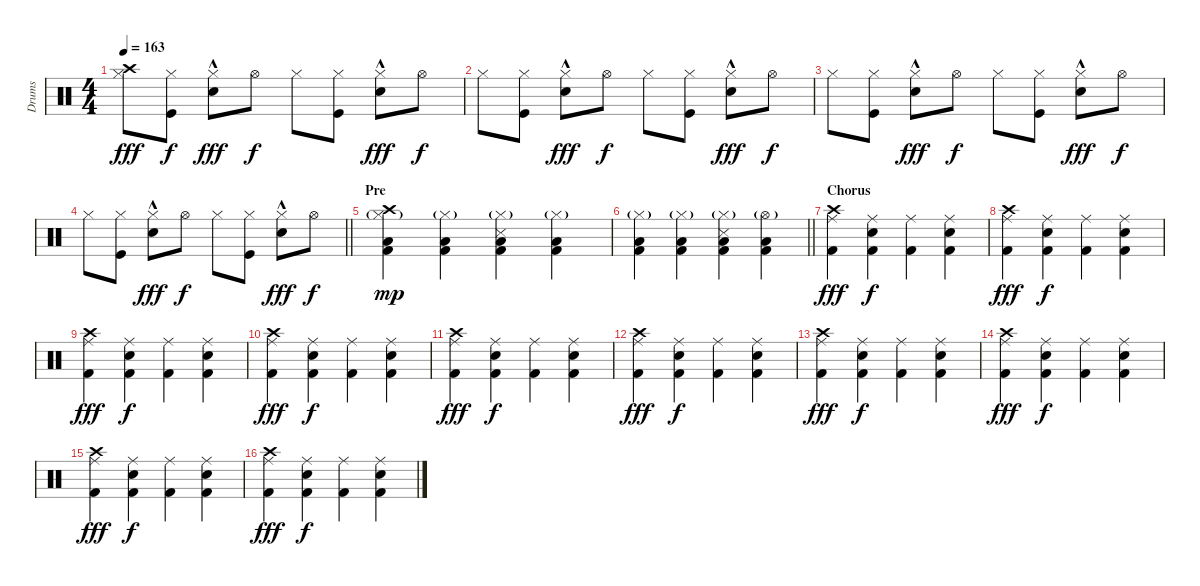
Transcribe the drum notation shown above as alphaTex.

\track ("Drums" "Drums") {instrument percussion}
\staff {score}
\articulation defaults
\ts (4 4)
\tempo 163
\clef neutral
\ks c
("Crash high (hit)" "Hi-Hat (closed)").8{dy fff} ("Kick (hit)" "Hi-Hat (closed)").8{dy f} ("Snare (hit) 2"{hac} "Hi-Hat (closed)").8{dy fff} "Hi-Hat (open)".8{dy f} "Hi-Hat (closed)".8 ("Kick (hit)" "Hi-Hat (closed)").8 ("Snare (hit) 2"{hac} "Hi-Hat (closed)").8{dy fff} "Hi-Hat (open)".8{dy f} |
"Hi-Hat (closed)".8 ("Kick (hit)" "Hi-Hat (closed)").8 ("Snare (hit) 2"{hac} "Hi-Hat (closed)").8{dy fff} "Hi-Hat (open)".8{dy f} "Hi-Hat (closed)".8 ("Kick (hit)" "Hi-Hat (closed)").8 ("Snare (hit) 2"{hac} "Hi-Hat (closed)").8{dy fff} "Hi-Hat (open)".8{dy f} |
"Hi-Hat (closed)".8 ("Kick (hit)" "Hi-Hat (closed)").8 ("Snare (hit) 2"{hac} "Hi-Hat (closed)").8{dy fff} "Hi-Hat (open)".8{dy f} "Hi-Hat (closed)".8 ("Kick (hit)" "Hi-Hat (closed)").8 ("Snare (hit) 2"{hac} "Hi-Hat (closed)").8{dy fff} "Hi-Hat (open)".8{dy f} |
\barLineRight lightlight "Hi-Hat (closed)".8
("Kick (hit)" "Hi-Hat (closed)").8 ("Snare (hit) 2"{hac} "Hi-Hat (closed)").8{dy fff} "Hi-Hat (open)".8{dy f} "Hi-Hat (closed)".8 ("Kick (hit)" "Hi-Hat (closed)").8 ("Snare (hit) 2"{hac} "Hi-Hat (closed)").8{dy fff} "Hi-Hat (open)".8{dy f} |
\section ("" "Pre")
("Kick (hit) 2" "Low Floor Tom (hit)" "Crash high (hit)" "Hi-Hat (closed)"{g}).4{dy mp} ("Kick (hit) 2" "Low Floor Tom (hit)" "Hi-Hat (closed)"{g}).4 ("Kick (hit) 2" "Low Floor Tom (hit)" "Metronome (hit)" "Hi-Hat (closed)"{g}).4 ("Kick (hit) 2" "Low Floor Tom (hit)" "Hi-Hat (closed)"{g}).4 |
\barLineRight lightlight
("Kick (hit) 2" "Low Floor Tom (hit)" "Hi-Hat (closed)"{g}).4 ("Kick (hit) 2" "Low Floor Tom (hit)" "Hi-Hat (closed)"{g}).4 ("Kick (hit) 2" "Low Floor Tom (hit)" "Metronome (hit)" "Hi-Hat (closed)"{g}).4 ("Kick (hit) 2" "Low Floor Tom (hit)" "Hi-Hat (open)"{g}).4 |
\section ("" "Chorus")
("Kick (hit) 2" "Crash high (hit)" "Ride (middle)").4{dy fff} ("Kick (hit) 2" "Snare (hit) 2" "Ride (middle)").4{dy f} ("Kick (hit) 2" "Ride (middle)").4 ("Kick (hit) 2" "Snare (hit) 2" "Ride (middle)").4 |
("Kick (hit) 2" "Crash high (hit)" "Ride (middle)").4{dy fff} ("Kick (hit) 2" "Snare (hit) 2" "Ride (middle)").4{dy f} ("Kick (hit) 2" "Ride (middle)").4 ("Kick (hit) 2" "Snare (hit) 2" "Ride (middle)").4 |
("Kick (hit) 2" "Crash high (hit)" "Ride (middle)").4{dy fff} ("Kick (hit) 2" "Snare (hit) 2" "Ride (middle)").4{dy f} ("Kick (hit) 2" "Ride (middle)").4 ("Kick (hit) 2" "Snare (hit) 2" "Ride (middle)").4 |
("Kick (hit) 2" "Crash high (hit)" "Ride (middle)").4{dy fff} ("Kick (hit) 2" "Snare (hit) 2" "Ride (middle)").4{dy f} ("Kick (hit) 2" "Ride (middle)").4 ("Kick (hit) 2" "Snare (hit) 2" "Ride (middle)").4 |
("Kick (hit) 2" "Crash high (hit)" "Ride (middle)").4{dy fff} ("Kick (hit) 2" "Snare (hit) 2" "Ride (middle)").4{dy f} ("Kick (hit) 2" "Ride (middle)").4 ("Kick (hit) 2" "Snare (hit) 2" "Ride (middle)").4 |
("Kick (hit) 2" "Crash high (hit)" "Ride (middle)").4{dy fff} ("Kick (hit) 2" "Snare (hit) 2" "Ride (middle)").4{dy f} ("Kick (hit) 2" "Ride (middle)").4 ("Kick (hit) 2" "Snare (hit) 2" "Ride (middle)").4 |
("Kick (hit) 2" "Crash high (hit)" "Ride (middle)").4{dy fff} ("Kick (hit) 2" "Snare (hit) 2" "Ride (middle)").4{dy f} ("Kick (hit) 2" "Ride (middle)").4 ("Kick (hit) 2" "Snare (hit) 2" "Ride (middle)").4 |
("Kick (hit) 2" "Crash high (hit)" "Ride (middle)").4{dy fff} ("Kick (hit) 2" "Snare (hit) 2" "Ride (middle)").4{dy f} ("Kick (hit) 2" "Ride (middle)").4 ("Kick (hit) 2" "Snare (hit) 2" "Ride (middle)").4 |
("Kick (hit) 2" "Crash high (hit)" "Ride (middle)").4{dy fff} ("Kick (hit) 2" "Snare (hit) 2" "Ride (middle)").4{dy f} ("Kick (hit) 2" "Ride (middle)").4 ("Kick (hit) 2" "Snare (hit) 2" "Ride (middle)").4 |
("Kick (hit) 2" "Crash high (hit)" "Ride (middle)").4{dy fff} ("Kick (hit) 2" "Snare (hit) 2" "Ride (middle)").4{dy f} ("Kick (hit) 2" "Ride (middle)").4 ("Kick (hit) 2" "Snare (hit) 2" "Ride (middle)").4
